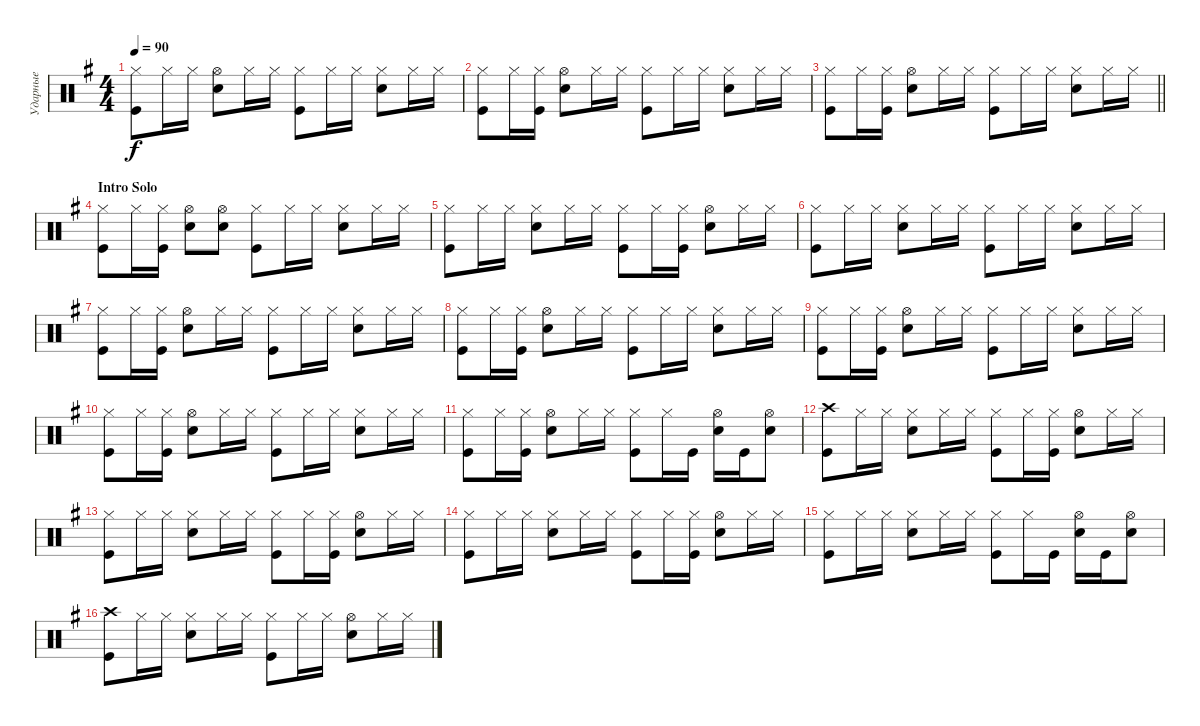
\track ("Ударные" "Ударные") {instrument percussion}
\staff {score}
\articulation defaults
\ts (4 4)
\tempo 90
\clef neutral
\ks eminor
("Kick (hit)" "Hi-Hat (closed)").8{dy f} "Hi-Hat (closed)".16 "Hi-Hat (closed)".16 ("Hi-Hat (open)" "Snare (hit) 2").8 "Hi-Hat (closed)".16 "Hi-Hat (closed)".16 ("Hi-Hat (closed)" "Kick (hit)").8 "Hi-Hat (closed)".16 "Hi-Hat (closed)".16 ("Hi-Hat (closed)" "Snare (hit) 2").8 "Hi-Hat (closed)".16 "Hi-Hat (closed)".16 |
("Kick (hit)" "Hi-Hat (closed)").8 "Hi-Hat (closed)".16 ("Hi-Hat (closed)" "Kick (hit)").16 ("Hi-Hat (open)" "Snare (hit) 2").8 "Hi-Hat (closed)".16 "Hi-Hat (closed)".16 ("Hi-Hat (closed)" "Kick (hit)").8 "Hi-Hat (closed)".16 "Hi-Hat (closed)".16 ("Hi-Hat (closed)" "Snare (hit) 2").8 "Hi-Hat (closed)".16 "Hi-Hat (closed)".16 |
\barLineRight lightlight
("Kick (hit)" "Hi-Hat (closed)").8 "Hi-Hat (closed)".16 ("Hi-Hat (closed)" "Kick (hit)").16 ("Hi-Hat (open)" "Snare (hit) 2").8 "Hi-Hat (closed)".16 "Hi-Hat (closed)".16 ("Hi-Hat (closed)" "Kick (hit)").8 "Hi-Hat (closed)".16 "Hi-Hat (closed)".16 ("Hi-Hat (closed)" "Snare (hit) 2").8 "Hi-Hat (closed)".16 "Hi-Hat (closed)".16 |
\section ("" "Intro Solo")
("Kick (hit)" "Hi-Hat (closed)").8 "Hi-Hat (closed)".16 ("Hi-Hat (closed)" "Kick (hit)").16 ("Hi-Hat (open)" "Snare (hit) 2").8 ("Hi-Hat (open)" "Snare (hit) 2").8 ("Hi-Hat (closed)" "Kick (hit)").8 "Hi-Hat (closed)".16 "Hi-Hat (closed)".16 ("Snare (hit) 2" "Hi-Hat (closed)").8 "Hi-Hat (closed)".16 "Hi-Hat (closed)".16 |
("Kick (hit)" "Hi-Hat (closed)").8 "Hi-Hat (closed)".16 "Hi-Hat (closed)".16 ("Snare (hit) 2" "Hi-Hat (closed)").8 "Hi-Hat (closed)".16 "Hi-Hat (closed)".16 ("Hi-Hat (closed)" "Kick (hit)").8 "Hi-Hat (closed)".16 ("Hi-Hat (closed)" "Kick (hit)").16 ("Snare (hit) 2" "Hi-Hat (open)").8 "Hi-Hat (closed)".16 "Hi-Hat (closed)".16 |
("Kick (hit)" "Hi-Hat (closed)").8 "Hi-Hat (closed)".16 "Hi-Hat (closed)".16 ("Hi-Hat (closed)" "Snare (hit) 2").8 "Hi-Hat (closed)".16 "Hi-Hat (closed)".16 ("Hi-Hat (closed)" "Kick (hit)").8 "Hi-Hat (closed)".16 "Hi-Hat (closed)".16 ("Hi-Hat (closed)" "Snare (hit) 2").8 "Hi-Hat (closed)".16 "Hi-Hat (closed)".16 |
("Kick (hit)" "Hi-Hat (closed)").8 "Hi-Hat (closed)".16 ("Hi-Hat (closed)" "Kick (hit)").16 ("Hi-Hat (open)" "Snare (hit) 2").8 "Hi-Hat (closed)".16 "Hi-Hat (closed)".16 ("Hi-Hat (closed)" "Kick (hit)").8 "Hi-Hat (closed)".16 "Hi-Hat (closed)".16 ("Hi-Hat (closed)" "Snare (hit) 2").8 "Hi-Hat (closed)".16 "Hi-Hat (closed)".16 |
("Kick (hit)" "Hi-Hat (closed)").8 "Hi-Hat (closed)".16 ("Hi-Hat (closed)" "Kick (hit)").16 ("Hi-Hat (open)" "Snare (hit) 2").8 "Hi-Hat (closed)".16 "Hi-Hat (closed)".16 ("Hi-Hat (closed)" "Kick (hit)").8 "Hi-Hat (closed)".16 "Hi-Hat (closed)".16 ("Hi-Hat (closed)" "Snare (hit) 2").8 "Hi-Hat (closed)".16 "Hi-Hat (closed)".16 |
("Kick (hit)" "Hi-Hat (closed)").8 "Hi-Hat (closed)".16 ("Hi-Hat (closed)" "Kick (hit)").16 ("Hi-Hat (open)" "Snare (hit) 2").8 "Hi-Hat (closed)".16 "Hi-Hat (closed)".16 ("Hi-Hat (closed)" "Kick (hit)").8 "Hi-Hat (closed)".16 "Hi-Hat (closed)".16 ("Hi-Hat (closed)" "Snare (hit) 2").8 "Hi-Hat (closed)".16 "Hi-Hat (closed)".16 |
("Kick (hit)" "Hi-Hat (closed)").8 "Hi-Hat (closed)".16 ("Hi-Hat (closed)" "Kick (hit)").16 ("Hi-Hat (open)" "Snare (hit) 2").8 "Hi-Hat (closed)".16 "Hi-Hat (closed)".16 ("Hi-Hat (closed)" "Kick (hit)").8 "Hi-Hat (closed)".16 "Hi-Hat (closed)".16 ("Hi-Hat (closed)" "Snare (hit) 2").8 "Hi-Hat (closed)".16 "Hi-Hat (closed)".16 |
("Kick (hit)" "Hi-Hat (closed)").8 "Hi-Hat (closed)".16 ("Hi-Hat (closed)" "Kick (hit)").16 ("Hi-Hat (open)" "Snare (hit) 2").8 "Hi-Hat (closed)".16 "Hi-Hat (closed)".16 ("Hi-Hat (closed)" "Kick (hit)").8 "Hi-Hat (closed)".16 "Kick (hit)".16 ("Hi-Hat (open)" "Snare (hit) 2").16 "Kick (hit)".16 ("Snare (hit) 2" "Hi-Hat (open)").8 |
("Kick (hit)" "Crash high (hit)").8 "Hi-Hat (closed)".16 "Hi-Hat (closed)".16 ("Snare (hit) 2" "Hi-Hat (closed)").8 "Hi-Hat (closed)".16 "Hi-Hat (closed)".16 ("Hi-Hat (closed)" "Kick (hit)").8 "Hi-Hat (closed)".16 ("Hi-Hat (closed)" "Kick (hit)").16 ("Snare (hit) 2" "Hi-Hat (open)").8 "Hi-Hat (closed)".16 "Hi-Hat (closed)".16 |
("Kick (hit)" "Hi-Hat (closed)").8 "Hi-Hat (closed)".16 "Hi-Hat (closed)".16 ("Snare (hit) 2" "Hi-Hat (closed)").8 "Hi-Hat (closed)".16 "Hi-Hat (closed)".16 ("Hi-Hat (closed)" "Kick (hit)").8 "Hi-Hat (closed)".16 ("Hi-Hat (closed)" "Kick (hit)").16 ("Snare (hit) 2" "Hi-Hat (open)").8 "Hi-Hat (closed)".16 "Hi-Hat (closed)".16 |
("Kick (hit)" "Hi-Hat (closed)").8 "Hi-Hat (closed)".16 "Hi-Hat (closed)".16 ("Snare (hit) 2" "Hi-Hat (closed)").8 "Hi-Hat (closed)".16 "Hi-Hat (closed)".16 ("Hi-Hat (closed)" "Kick (hit)").8 "Hi-Hat (closed)".16 ("Hi-Hat (closed)" "Kick (hit)").16 ("Snare (hit) 2" "Hi-Hat (open)").8 "Hi-Hat (closed)".16 "Hi-Hat (closed)".16 |
("Kick (hit)" "Hi-Hat (closed)").8 "Hi-Hat (closed)".16 "Hi-Hat (closed)".16 ("Snare (hit) 2" "Hi-Hat (closed)").8 "Hi-Hat (closed)".16 "Hi-Hat (closed)".16 ("Hi-Hat (closed)" "Kick (hit)").8 "Hi-Hat (closed)".16 "Kick (hit)".16 ("Hi-Hat (open)" "Snare (hit) 2").16 "Kick (hit)".16 ("Snare (hit) 2" "Hi-Hat (open)").8 |
("Kick (hit)" "Crash high (hit)").8 "Hi-Hat (closed)".16 "Hi-Hat (closed)".16 ("Snare (hit) 2" "Hi-Hat (closed)").8 "Hi-Hat (closed)".16 "Hi-Hat (closed)".16 ("Hi-Hat (closed)" "Kick (hit)").8 "Hi-Hat (closed)".16 "Hi-Hat (closed)".16 ("Snare (hit) 2" "Hi-Hat (open)").8 "Hi-Hat (closed)".16 "Hi-Hat (closed)".16
